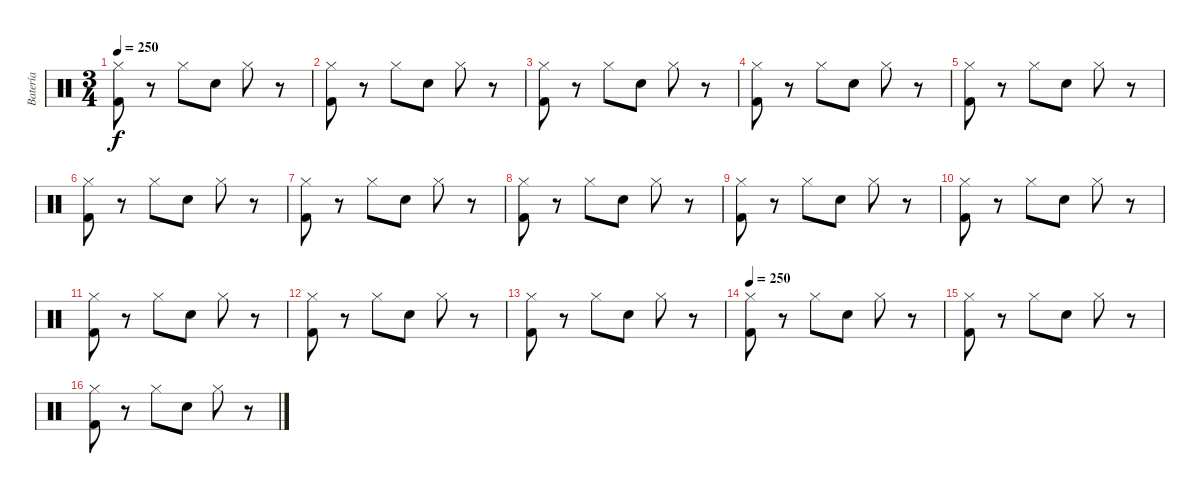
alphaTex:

\track ("Batería" "Batería") {instrument percussion}
\staff {score}
\articulation defaults
\ts (3 4)
\tempo 250
\clef neutral
\ks c
("Kick (hit) 2" "Hi-Hat (closed)").8{dy f} r.8 "Hi-Hat (closed)".8 "Snare (hit) 2".8 "Hi-Hat (closed)".8 r.8 |
("Kick (hit) 2" "Hi-Hat (closed)").8 r.8 "Hi-Hat (closed)".8 "Snare (hit) 2".8 "Hi-Hat (closed)".8 r.8 |
("Kick (hit) 2" "Hi-Hat (closed)").8 r.8 "Hi-Hat (closed)".8 "Snare (hit) 2".8 "Hi-Hat (closed)".8 r.8 |
("Kick (hit) 2" "Hi-Hat (closed)").8 r.8 "Hi-Hat (closed)".8 "Snare (hit) 2".8 "Hi-Hat (closed)".8 r.8 |
("Kick (hit) 2" "Hi-Hat (closed)").8 r.8 "Hi-Hat (closed)".8 "Snare (hit) 2".8 "Hi-Hat (closed)".8 r.8 |
("Kick (hit) 2" "Hi-Hat (closed)").8 r.8 "Hi-Hat (closed)".8 "Snare (hit) 2".8 "Hi-Hat (closed)".8 r.8 |
("Kick (hit) 2" "Hi-Hat (closed)").8 r.8 "Hi-Hat (closed)".8 "Snare (hit) 2".8 "Hi-Hat (closed)".8 r.8 |
("Kick (hit) 2" "Hi-Hat (closed)").8 r.8 "Hi-Hat (closed)".8 "Snare (hit) 2".8 "Hi-Hat (closed)".8 r.8 |
("Kick (hit) 2" "Hi-Hat (closed)").8 r.8 "Hi-Hat (closed)".8 "Snare (hit) 2".8 "Hi-Hat (closed)".8 r.8 |
("Kick (hit) 2" "Hi-Hat (closed)").8 r.8 "Hi-Hat (closed)".8 "Snare (hit) 2".8 "Hi-Hat (closed)".8 r.8 |
("Kick (hit) 2" "Hi-Hat (closed)").8 r.8 "Hi-Hat (closed)".8 "Snare (hit) 2".8 "Hi-Hat (closed)".8 r.8 |
("Kick (hit) 2" "Hi-Hat (closed)").8 r.8 "Hi-Hat (closed)".8 "Snare (hit) 2".8 "Hi-Hat (closed)".8 r.8 |
("Kick (hit) 2" "Hi-Hat (closed)").8 r.8 "Hi-Hat (closed)".8 "Snare (hit) 2".8 "Hi-Hat (closed)".8 r.8 |
\tempo 250
("Kick (hit) 2" "Hi-Hat (closed)").8 r.8 "Hi-Hat (closed)".8 "Snare (hit) 2".8 "Hi-Hat (closed)".8 r.8 |
("Kick (hit) 2" "Hi-Hat (closed)").8 r.8 "Hi-Hat (closed)".8 "Snare (hit) 2".8 "Hi-Hat (closed)".8 r.8 |
("Kick (hit) 2" "Hi-Hat (closed)").8 r.8 "Hi-Hat (closed)".8 "Snare (hit) 2".8 "Hi-Hat (closed)".8 r.8
